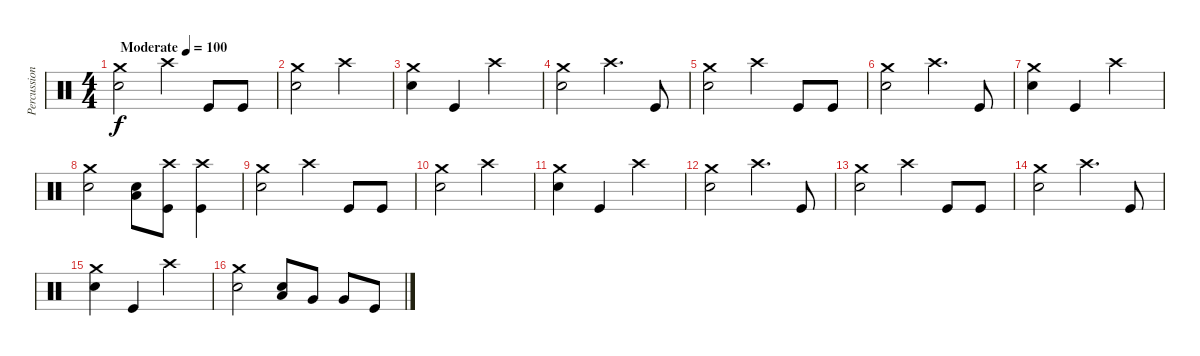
\track ("Percussions" "Percussion") {instrument percussion}
\staff {score}
\articulation defaults
\ts (4 4)
\tempo (100 "Moderate")
\clef neutral
\ks c
("Crash medium (hit)" "Snare (hit) 2").2{dy f} "Crash high (hit)".4 "Kick (hit)".8 "Kick (hit)".8 |
("Crash medium (hit)" "Snare (hit) 2").2 "Crash high (hit)".2 |
("Crash medium (hit)" "Snare (hit) 2").4 "Kick (hit)".4 "Crash high (hit)".2 |
("Crash medium (hit)" "Snare (hit) 2").2 "Crash high (hit)".4{d} "Kick (hit)".8 |
("Crash medium (hit)" "Snare (hit) 2").2 "Crash high (hit)".4 "Kick (hit)".8 "Kick (hit)".8 |
("Crash medium (hit)" "Snare (hit) 2").2 "Crash high (hit)".4{d} "Kick (hit)".8 |
("Crash medium (hit)" "Snare (hit) 2").4 "Kick (hit)".4 "Crash high (hit)".2 |
("Crash medium (hit)" "Snare (hit) 2").2 ("Low Tom (hit)" "Snare (hit) 2").8 ("Crash high (hit)" "Kick (hit)").8 ("Crash high (hit)" "Kick (hit)").4 |
("Crash medium (hit)" "Snare (hit) 2").2 "Crash high (hit)".4 "Kick (hit)".8 "Kick (hit)".8 |
("Crash medium (hit)" "Snare (hit) 2").2 "Crash high (hit)".2 |
("Crash medium (hit)" "Snare (hit) 2").4 "Kick (hit)".4 "Crash high (hit)".2 |
("Crash medium (hit)" "Snare (hit) 2").2 "Crash high (hit)".4{d} "Kick (hit)".8 |
("Crash medium (hit)" "Snare (hit) 2").2 "Crash high (hit)".4 "Kick (hit)".8 "Kick (hit)".8 |
("Crash medium (hit)" "Snare (hit) 2").2 "Crash high (hit)".4{d} "Kick (hit)".8 |
("Crash medium (hit)" "Snare (hit) 2").4 "Kick (hit)".4 "Crash high (hit)".2 |
("Crash medium (hit)" "Snare (hit) 2").2 ("Low Tom (hit)" "Snare (hit) 2").8 "Very Low Tom (hit)".8 "Very Low Tom (hit)".8 "Kick (hit)".8
